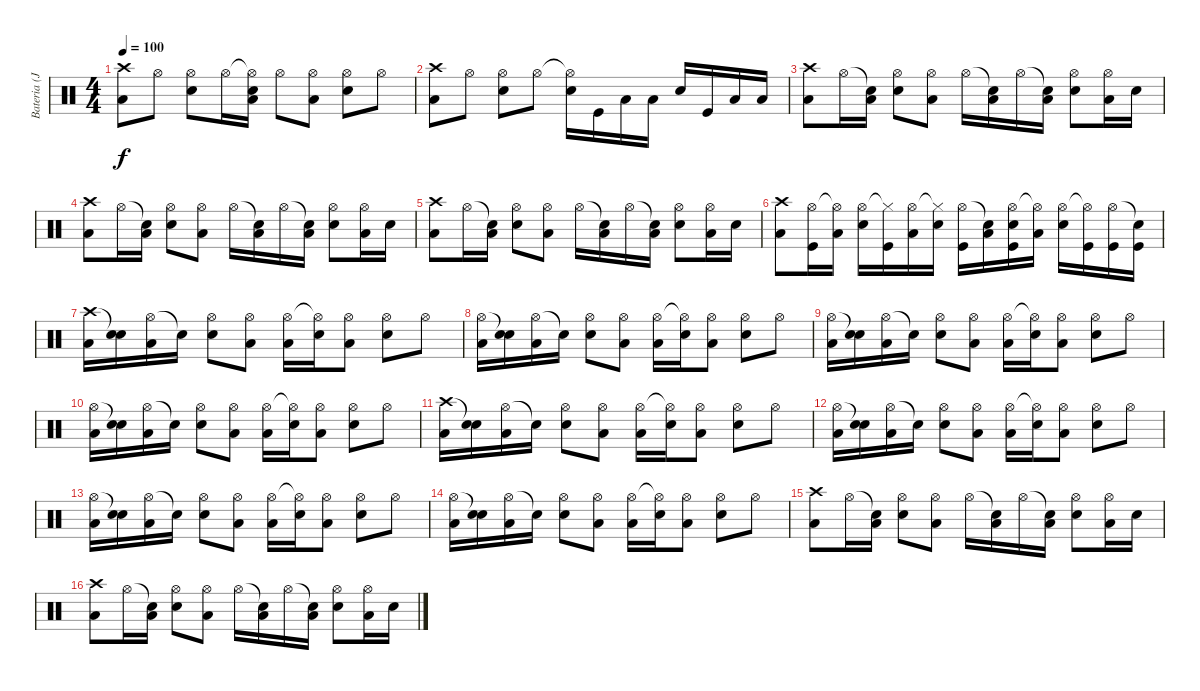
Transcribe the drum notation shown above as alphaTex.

\track ("Bateria (John)" "Bateria (J") {instrument percussion}
\staff {score}
\articulation defaults
\ts (4 4)
\tempo 100
\clef neutral
\ks c
("Crash high (hit)" "Low Tom (hit)").8{dy f} "Hi-Hat (open)".8 ("Hi-Hat (open)" "Electric Snare (hit)").8 "Hi-Hat (open)".16 ("Hi-Hat (open)"{t} "Electric Snare (hit)" "Low Tom (hit)").16 "Hi-Hat (open)".8 ("Hi-Hat (open)" "Low Tom (hit)").8 ("Hi-Hat (open)" "Electric Snare (hit)").8 "Hi-Hat (open)".8 |
("Crash high (hit)" "Low Tom (hit)").8 "Hi-Hat (open)".8 ("Hi-Hat (open)" "Electric Snare (hit)").8 "Hi-Hat (open)".8 ("Hi-Hat (open)"{t} "Electric Snare (hit)").16 "Kick (hit)".16 "Low Tom (hit)".16 "Low Tom (hit)".16 "Electric Snare (hit)".16 "Kick (hit)".16 "Low Tom (hit)".16 "Low Tom (hit)".16 |
("Crash high (hit)" "Low Tom (hit)").8 "Hi-Hat (open)".16 ("Snare (hit)"{t} "Low Tom (hit)").16 ("Hi-Hat (open)" "Electric Snare (hit)").8 ("Hi-Hat (open)" "Low Tom (hit)").8 "Hi-Hat (open)".16 ("Snare (hit)"{t} "Low Tom (hit)").16 "Hi-Hat (open)".16 ("Snare (hit)"{t} "Low Tom (hit)").16 ("Hi-Hat (open)" "Electric Snare (hit)").8 ("Hi-Hat (open)" "Low Tom (hit)").16 "Electric Snare (hit)".16 |
("Crash high (hit)" "Low Tom (hit)").8 "Hi-Hat (open)".16 ("Snare (hit)"{t} "Low Tom (hit)").16 ("Hi-Hat (open)" "Electric Snare (hit)").8 ("Hi-Hat (open)" "Low Tom (hit)").8 "Hi-Hat (open)".16 ("Snare (hit)"{t} "Low Tom (hit)").16 "Hi-Hat (open)".16 ("Snare (hit)"{t} "Low Tom (hit)").16 ("Hi-Hat (open)" "Electric Snare (hit)").8 ("Hi-Hat (open)" "Low Tom (hit)").16 "Electric Snare (hit)".16 |
("Crash high (hit)" "Low Tom (hit)").8 "Hi-Hat (open)".16 ("Snare (hit)"{t} "Low Tom (hit)").16 ("Hi-Hat (open)" "Electric Snare (hit)").8 ("Hi-Hat (open)" "Low Tom (hit)").8 "Hi-Hat (open)".16 ("Snare (hit)"{t} "Low Tom (hit)").16 "Hi-Hat (open)".16 ("Snare (hit)"{t} "Low Tom (hit)").16 ("Hi-Hat (open)" "Electric Snare (hit)").8 ("Hi-Hat (open)" "Low Tom (hit)").16 "Electric Snare (hit)".16 |
("Crash high (hit)" "Low Tom (hit)").8 ("Hi-Hat (open)" "Kick (hit)").16 ("Hi-Hat (open)"{t} "Low Tom (hit)").16 ("Hi-Hat (open)" "Electric Snare (hit)").16 ("Hi-Hat (closed)"{t} "Kick (hit)").16 ("Hi-Hat (open)" "Low Tom (hit)").16 ("Hi-Hat (closed)"{t} "Electric Snare (hit)").16 ("Hi-Hat (open)" "Kick (hit)").16 ("Snare (hit)"{t} "Low Tom (hit)").16 ("Hi-Hat (open)" "Kick (hit)" "Snare (hit)").16 ("Hi-Hat (open)"{t} "Low Tom (hit)").16 ("Hi-Hat (open)" "Electric Snare (hit)").16 ("Hi-Hat (open)"{t} "Kick (hit)").16 ("Hi-Hat (open)" "Kick (hit)").16 ("Snare (hit)"{t} "Kick (hit)").16 |
("Crash high (hit)" "Low Tom (hit)").16 ("Snare (hit)"{t} "Electric Snare (hit)").16 ("Hi-Hat (open)" "Low Tom (hit)").16 "Snare (hit)"{t}.16 ("Hi-Hat (open)" "Electric Snare (hit)").8 ("Hi-Hat (open)" "Low Tom (hit)").8 ("Hi-Hat (open)" "Low Tom (hit)").16 ("Hi-Hat (open)"{t} "Electric Snare (hit)").16 ("Hi-Hat (open)" "Low Tom (hit)").8 ("Hi-Hat (open)" "Electric Snare (hit)").8 "Hi-Hat (open)".8 |
("Hi-Hat (open)" "Low Tom (hit)").16 ("Snare (hit)"{t} "Electric Snare (hit)").16 ("Hi-Hat (open)" "Low Tom (hit)").16 "Snare (hit)"{t}.16 ("Hi-Hat (open)" "Electric Snare (hit)").8 ("Hi-Hat (open)" "Low Tom (hit)").8 ("Hi-Hat (open)" "Low Tom (hit)").16 ("Hi-Hat (open)"{t} "Electric Snare (hit)").16 ("Hi-Hat (open)" "Low Tom (hit)").8 ("Hi-Hat (open)" "Electric Snare (hit)").8 "Hi-Hat (open)".8 |
("Hi-Hat (open)" "Low Tom (hit)").16 ("Snare (hit)"{t} "Electric Snare (hit)").16 ("Hi-Hat (open)" "Low Tom (hit)").16 "Snare (hit)"{t}.16 ("Hi-Hat (open)" "Electric Snare (hit)").8 ("Hi-Hat (open)" "Low Tom (hit)").8 ("Hi-Hat (open)" "Low Tom (hit)").16 ("Hi-Hat (open)"{t} "Electric Snare (hit)").16 ("Hi-Hat (open)" "Low Tom (hit)").8 ("Hi-Hat (open)" "Electric Snare (hit)").8 "Hi-Hat (open)".8 |
("Hi-Hat (open)" "Low Tom (hit)").16 ("Snare (hit)"{t} "Electric Snare (hit)").16 ("Hi-Hat (open)" "Low Tom (hit)").16 "Snare (hit)"{t}.16 ("Hi-Hat (open)" "Electric Snare (hit)").8 ("Hi-Hat (open)" "Low Tom (hit)").8 ("Hi-Hat (open)" "Low Tom (hit)").16 ("Hi-Hat (open)"{t} "Electric Snare (hit)").16 ("Hi-Hat (open)" "Low Tom (hit)").8 ("Hi-Hat (open)" "Electric Snare (hit)").8 "Hi-Hat (open)".8 |
("Crash high (hit)" "Low Tom (hit)").16 ("Snare (hit)"{t} "Electric Snare (hit)").16 ("Hi-Hat (open)" "Low Tom (hit)").16 "Snare (hit)"{t}.16 ("Hi-Hat (open)" "Electric Snare (hit)").8 ("Hi-Hat (open)" "Low Tom (hit)").8 ("Hi-Hat (open)" "Low Tom (hit)").16 ("Hi-Hat (open)"{t} "Electric Snare (hit)").16 ("Hi-Hat (open)" "Low Tom (hit)").8 ("Hi-Hat (open)" "Electric Snare (hit)").8 "Hi-Hat (open)".8 |
("Hi-Hat (open)" "Low Tom (hit)").16 ("Snare (hit)"{t} "Electric Snare (hit)").16 ("Hi-Hat (open)" "Low Tom (hit)").16 "Snare (hit)"{t}.16 ("Hi-Hat (open)" "Electric Snare (hit)").8 ("Hi-Hat (open)" "Low Tom (hit)").8 ("Hi-Hat (open)" "Low Tom (hit)").16 ("Hi-Hat (open)"{t} "Electric Snare (hit)").16 ("Hi-Hat (open)" "Low Tom (hit)").8 ("Hi-Hat (open)" "Electric Snare (hit)").8 "Hi-Hat (open)".8 |
("Hi-Hat (open)" "Low Tom (hit)").16 ("Snare (hit)"{t} "Electric Snare (hit)").16 ("Hi-Hat (open)" "Low Tom (hit)").16 "Snare (hit)"{t}.16 ("Hi-Hat (open)" "Electric Snare (hit)").8 ("Hi-Hat (open)" "Low Tom (hit)").8 ("Hi-Hat (open)" "Low Tom (hit)").16 ("Hi-Hat (open)"{t} "Electric Snare (hit)").16 ("Hi-Hat (open)" "Low Tom (hit)").8 ("Hi-Hat (open)" "Electric Snare (hit)").8 "Hi-Hat (open)".8 |
("Hi-Hat (open)" "Low Tom (hit)").16 ("Snare (hit)"{t} "Electric Snare (hit)").16 ("Hi-Hat (open)" "Low Tom (hit)").16 "Snare (hit)"{t}.16 ("Hi-Hat (open)" "Electric Snare (hit)").8 ("Hi-Hat (open)" "Low Tom (hit)").8 ("Hi-Hat (open)" "Low Tom (hit)").16 ("Hi-Hat (open)"{t} "Electric Snare (hit)").16 ("Hi-Hat (open)" "Low Tom (hit)").8 ("Hi-Hat (open)" "Electric Snare (hit)").8 "Hi-Hat (open)".8 |
("Crash high (hit)" "Low Tom (hit)").8 "Hi-Hat (open)".16 ("Snare (hit)"{t} "Low Tom (hit)").16 ("Hi-Hat (open)" "Electric Snare (hit)").8 ("Hi-Hat (open)" "Low Tom (hit)").8 "Hi-Hat (open)".16 ("Snare (hit)"{t} "Low Tom (hit)").16 "Hi-Hat (open)".16 ("Snare (hit)"{t} "Low Tom (hit)").16 ("Hi-Hat (open)" "Electric Snare (hit)").8 ("Hi-Hat (open)" "Low Tom (hit)").16 "Electric Snare (hit)".16 |
("Crash high (hit)" "Low Tom (hit)").8 "Hi-Hat (open)".16 ("Snare (hit)"{t} "Low Tom (hit)").16 ("Hi-Hat (open)" "Electric Snare (hit)").8 ("Hi-Hat (open)" "Low Tom (hit)").8 "Hi-Hat (open)".16 ("Snare (hit)"{t} "Low Tom (hit)").16 "Hi-Hat (open)".16 ("Snare (hit)"{t} "Low Tom (hit)").16 ("Hi-Hat (open)" "Electric Snare (hit)").8 ("Hi-Hat (open)" "Low Tom (hit)").16 "Electric Snare (hit)".16
